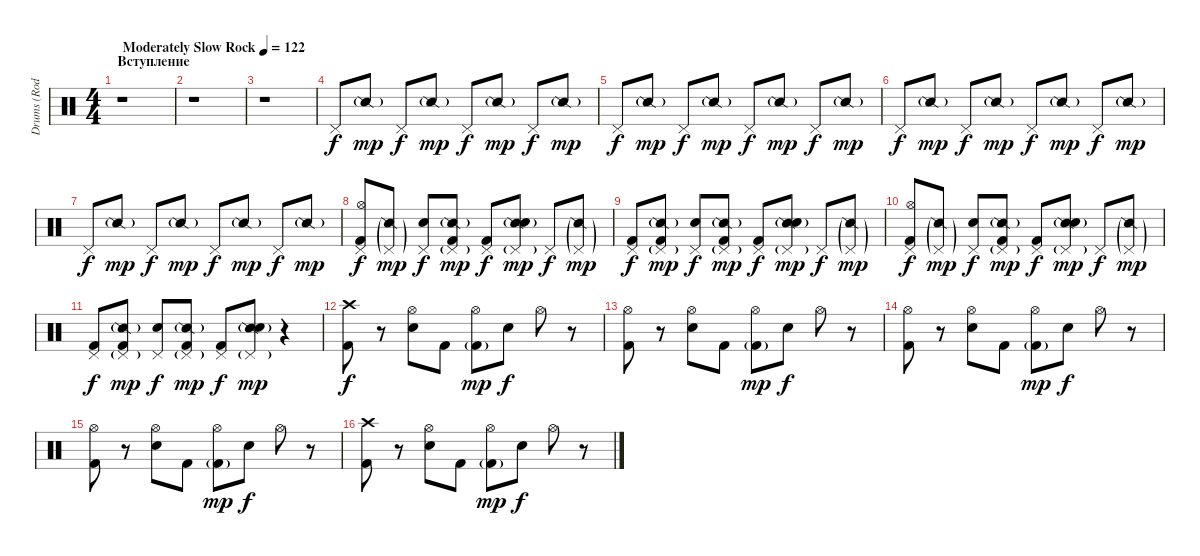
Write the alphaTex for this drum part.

\track ("Drums (Rod Bourdon)" "Drums (Rod") {instrument percussion}
\staff {score}
\articulation defaults
\ts (4 4)
\section ("" "Вступление")
\tempo (122 "Moderately Slow Rock")
\clef neutral
\ks c
r.1{dy f} |
r.1 |
r.1 |
"Pedal Hi-Hat (hit)".8 "Snare (side stick) 2"{g}.8{dy mp} "Pedal Hi-Hat (hit)".8{dy f} "Snare (side stick) 2"{g}.8{dy mp} "Pedal Hi-Hat (hit)".8{dy f} "Snare (side stick) 2"{g}.8{dy mp} "Pedal Hi-Hat (hit)".8{dy f} "Snare (side stick) 2"{g}.8{dy mp} |
"Pedal Hi-Hat (hit)".8{dy f} "Snare (side stick) 2"{g}.8{dy mp} "Pedal Hi-Hat (hit)".8{dy f} "Snare (side stick) 2"{g}.8{dy mp} "Pedal Hi-Hat (hit)".8{dy f} "Snare (side stick) 2"{g}.8{dy mp} "Pedal Hi-Hat (hit)".8{dy f} "Snare (side stick) 2"{g}.8{dy mp} |
"Pedal Hi-Hat (hit)".8{dy f} "Snare (side stick) 2"{g}.8{dy mp} "Pedal Hi-Hat (hit)".8{dy f} "Snare (side stick) 2"{g}.8{dy mp} "Pedal Hi-Hat (hit)".8{dy f} "Snare (side stick) 2"{g}.8{dy mp} "Pedal Hi-Hat (hit)".8{dy f} "Snare (side stick) 2"{g}.8{dy mp} |
"Pedal Hi-Hat (hit)".8{dy f} "Snare (side stick) 2"{g}.8{dy mp} "Pedal Hi-Hat (hit)".8{dy f} "Snare (side stick) 2"{g}.8{dy mp} "Pedal Hi-Hat (hit)".8{dy f} "Snare (side stick) 2"{g}.8{dy mp} "Pedal Hi-Hat (hit)".8{dy f} "Snare (side stick) 2"{g}.8{dy mp} |
("Pedal Hi-Hat (hit)" "Hi-Hat (open)" "Kick (hit) 2").8{dy f} ("Snare (side stick) 2"{g} "Pedal Hi-Hat (hit)"{g}).8{dy mp} ("Pedal Hi-Hat (hit)" "Electric Snare (hit)").8{dy f} ("Snare (side stick) 2"{g} "Pedal Hi-Hat (hit)"{g} "Kick (hit) 2").8{dy mp} ("Pedal Hi-Hat (hit)" "Kick (hit) 2").8{dy f} ("Snare (side stick) 2"{g} "Pedal Hi-Hat (hit)"{g} "Electric Snare (hit)").8{dy mp} "Pedal Hi-Hat (hit)".8{dy f} ("Snare (side stick) 2"{g} "Pedal Hi-Hat (hit)"{g}).8{dy mp} |
("Pedal Hi-Hat (hit)" "Kick (hit) 2").8{dy f} ("Snare (side stick) 2"{g} "Pedal Hi-Hat (hit)"{g} "Kick (hit) 2").8{dy mp} ("Pedal Hi-Hat (hit)" "Electric Snare (hit)").8{dy f} ("Snare (side stick) 2"{g} "Pedal Hi-Hat (hit)"{g} "Kick (hit) 2").8{dy mp} ("Pedal Hi-Hat (hit)" "Kick (hit) 2").8{dy f} ("Snare (side stick) 2"{g} "Pedal Hi-Hat (hit)"{g} "Electric Snare (hit)").8{dy mp} "Pedal Hi-Hat (hit)".8{dy f} ("Snare (side stick) 2"{g} "Pedal Hi-Hat (hit)"{g}).8{dy mp} |
("Pedal Hi-Hat (hit)" "Hi-Hat (open)" "Kick (hit) 2").8{dy f} ("Snare (side stick) 2"{g} "Pedal Hi-Hat (hit)"{g}).8{dy mp} ("Pedal Hi-Hat (hit)" "Electric Snare (hit)").8{dy f} ("Snare (side stick) 2"{g} "Pedal Hi-Hat (hit)"{g} "Kick (hit) 2").8{dy mp} ("Pedal Hi-Hat (hit)" "Kick (hit) 2").8{dy f} ("Snare (side stick) 2"{g} "Pedal Hi-Hat (hit)"{g} "Electric Snare (hit)").8{dy mp} "Pedal Hi-Hat (hit)".8{dy f} ("Snare (side stick) 2"{g} "Pedal Hi-Hat (hit)"{g}).8{dy mp} |
("Pedal Hi-Hat (hit)" "Kick (hit) 2").8{dy f} ("Snare (side stick) 2"{g} "Pedal Hi-Hat (hit)"{g} "Kick (hit) 2").8{dy mp} ("Pedal Hi-Hat (hit)" "Electric Snare (hit)").8{dy f} ("Snare (side stick) 2"{g} "Pedal Hi-Hat (hit)"{g} "Kick (hit) 2").8{dy mp} ("Pedal Hi-Hat (hit)" "Kick (hit) 2").8{dy f} ("Snare (side stick) 2"{g} "Pedal Hi-Hat (hit)"{g} "Electric Snare (hit)").8{dy mp} r.4 |
("Crash high (hit)" "Kick (hit) 2").8{dy f} r.8 ("Hi-Hat (open)" "Electric Snare (hit)").8 "Kick (hit) 2".8 ("Hi-Hat (open)" "Kick (hit) 2"{g}).8{dy mp} "Electric Snare (hit)".8{dy f} "Hi-Hat (open)".8 r.8 |
("Hi-Hat (open)" "Kick (hit) 2").8 r.8 ("Hi-Hat (open)" "Electric Snare (hit)").8 "Kick (hit) 2".8 ("Hi-Hat (open)" "Kick (hit) 2"{g}).8{dy mp} "Electric Snare (hit)".8{dy f} "Hi-Hat (open)".8 r.8 |
("Hi-Hat (open)" "Kick (hit) 2").8 r.8 ("Hi-Hat (open)" "Electric Snare (hit)").8 "Kick (hit) 2".8 ("Hi-Hat (open)" "Kick (hit) 2"{g}).8{dy mp} "Electric Snare (hit)".8{dy f} "Hi-Hat (open)".8 r.8 |
("Hi-Hat (open)" "Kick (hit) 2").8 r.8 ("Hi-Hat (open)" "Electric Snare (hit)").8 "Kick (hit) 2".8 ("Hi-Hat (open)" "Kick (hit) 2"{g}).8{dy mp} "Electric Snare (hit)".8{dy f} "Hi-Hat (open)".8 r.8 |
("Crash high (hit)" "Kick (hit) 2").8 r.8 ("Hi-Hat (open)" "Electric Snare (hit)").8 "Kick (hit) 2".8 ("Hi-Hat (open)" "Kick (hit) 2"{g}).8{dy mp} "Electric Snare (hit)".8{dy f} "Hi-Hat (open)".8 r.8
